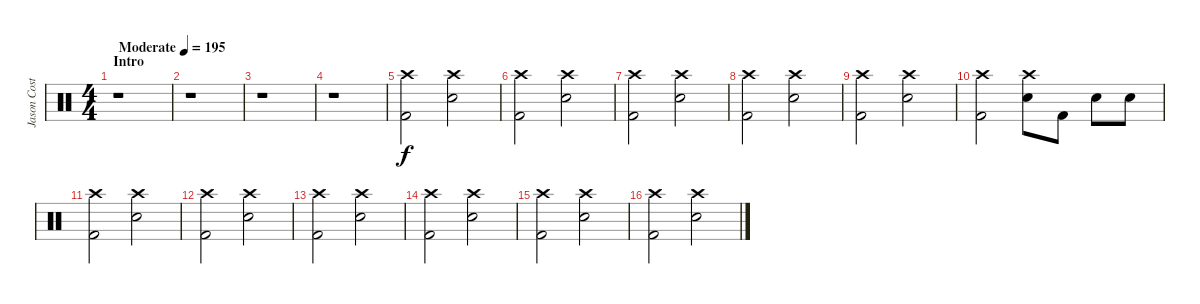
\track ("Jason Costa" "Jason Cost") {instrument percussion}
\staff {score}
\articulation defaults
\ts (4 4)
\section ("" "Intro")
\tempo (195 "Moderate")
\clef neutral
\ks c
r.1{dy f} |
r.1 |
r.1 |
r.1 |
("Crash high (hit)" "Kick (hit) 2").2 ("Crash high (hit)" "Electric Snare (hit)").2 |
("Crash high (hit)" "Kick (hit) 2").2 ("Crash high (hit)" "Electric Snare (hit)").2 |
("Crash high (hit)" "Kick (hit) 2").2 ("Crash high (hit)" "Electric Snare (hit)").2 |
("Crash high (hit)" "Kick (hit) 2").2 ("Crash high (hit)" "Electric Snare (hit)").2 |
("Crash high (hit)" "Kick (hit) 2").2 ("Crash high (hit)" "Electric Snare (hit)").2 |
("Crash high (hit)" "Kick (hit) 2").2 ("Crash high (hit)" "Electric Snare (hit)").8 "Kick (hit) 2".8 "Electric Snare (hit)".8 "Electric Snare (hit)".8 |
("Crash high (hit)" "Kick (hit) 2").2 ("Crash high (hit)" "Electric Snare (hit)").2 |
("Crash high (hit)" "Kick (hit) 2").2 ("Crash high (hit)" "Electric Snare (hit)").2 |
("Crash high (hit)" "Kick (hit) 2").2 ("Crash high (hit)" "Electric Snare (hit)").2 |
("Crash high (hit)" "Kick (hit) 2").2 ("Crash high (hit)" "Electric Snare (hit)").2 |
("Crash high (hit)" "Kick (hit) 2").2 ("Crash high (hit)" "Electric Snare (hit)").2 |
("Crash high (hit)" "Kick (hit) 2").2 ("Crash high (hit)" "Electric Snare (hit)").2
